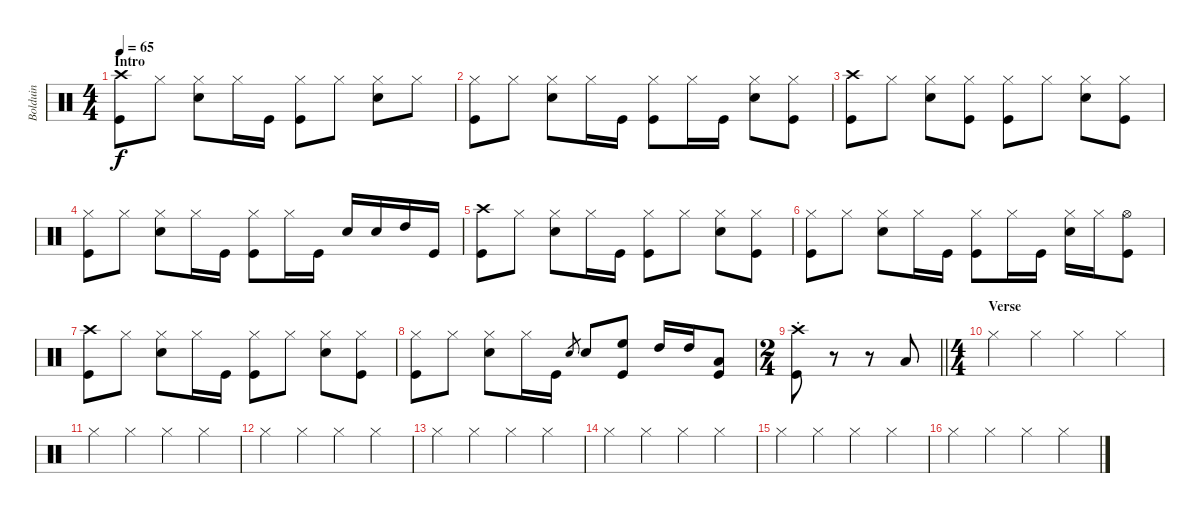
\track ("Bolduin" "Bolduin") {instrument percussion}
\staff {score}
\articulation defaults
\ts (4 4)
\section ("" "Intro")
\tempo 65
\clef neutral
\ks aminor
("Kick (hit)" "Crash high (hit)").8{dy f} "Hi-Hat (closed)".8 ("Hi-Hat (closed)" "Snare (hit) 2").8 "Hi-Hat (closed)".16 "Kick (hit)".16 ("Kick (hit)" "Hi-Hat (closed)").8 "Hi-Hat (closed)".8 ("Hi-Hat (closed)" "Snare (hit) 2").8 "Hi-Hat (closed)".8 |
("Kick (hit)" "Hi-Hat (closed)").8 "Hi-Hat (closed)".8 ("Hi-Hat (closed)" "Snare (hit) 2").8 "Hi-Hat (closed)".16 "Kick (hit)".16 ("Kick (hit)" "Hi-Hat (closed)").8 "Hi-Hat (closed)".16 "Kick (hit)".16 ("Hi-Hat (closed)" "Snare (hit) 2").8 ("Hi-Hat (closed)" "Kick (hit)").8 |
("Kick (hit)" "Crash high (hit)").8 "Hi-Hat (closed)".8 ("Hi-Hat (closed)" "Snare (hit) 2").8 ("Hi-Hat (closed)" "Kick (hit)").8 ("Kick (hit)" "Hi-Hat (closed)").8 "Hi-Hat (closed)".8 ("Hi-Hat (closed)" "Snare (hit) 2").8 ("Hi-Hat (closed)" "Kick (hit)").8 |
("Kick (hit)" "Hi-Hat (closed)").8 "Hi-Hat (closed)".8 ("Hi-Hat (closed)" "Snare (hit) 2").8 "Hi-Hat (closed)".16 "Kick (hit)".16 ("Kick (hit)" "Hi-Hat (closed)").8 "Hi-Hat (closed)".16 "Kick (hit)".16 "Snare (hit) 2".16 "Snare (hit) 2".16 "High Tom (hit)".16 "Kick (hit)".16 |
("Kick (hit)" "Crash high (hit)").8 "Hi-Hat (closed)".8 ("Hi-Hat (closed)" "Snare (hit) 2").8 "Hi-Hat (closed)".16 "Kick (hit)".16 ("Kick (hit)" "Hi-Hat (closed)").8 "Hi-Hat (closed)".8 ("Hi-Hat (closed)" "Snare (hit) 2").8 ("Hi-Hat (closed)" "Kick (hit)").8 |
("Kick (hit)" "Hi-Hat (closed)").8 "Hi-Hat (closed)".8 ("Hi-Hat (closed)" "Snare (hit) 2").8 "Hi-Hat (closed)".16 "Kick (hit)".16 ("Kick (hit)" "Hi-Hat (closed)").8 "Hi-Hat (closed)".16 "Kick (hit)".16 ("Hi-Hat (closed)" "Snare (hit) 2").16 "Hi-Hat (closed)".16 ("Hi-Hat (open)" "Kick (hit)").8 |
("Kick (hit)" "Crash high (hit)").8 "Hi-Hat (closed)".8 ("Hi-Hat (closed)" "Snare (hit) 2").8 "Hi-Hat (closed)".16 "Kick (hit)".16 ("Kick (hit)" "Hi-Hat (closed)").8 "Hi-Hat (closed)".8 ("Hi-Hat (closed)" "Snare (hit) 2").8 ("Hi-Hat (closed)" "Kick (hit)").8 |
("Kick (hit)" "Hi-Hat (closed)").8 "Hi-Hat (closed)".8 ("Hi-Hat (closed)" "Snare (hit) 2").8 "Hi-Hat (closed)".16 "Kick (hit)".16 "Snare (hit) 2".8{gr} "Snare (hit) 2".8 ("Kick (hit)" "High Floor Tom (hit)").8 "High Tom (hit)".16 "High Tom (hit)".16 ("Low Tom (hit)" "Kick (hit)").8 |
\ts (2 4)
\barLineRight lightlight
("Kick (hit)" "Crash high (hit)"{st}).8 r.8 r.8 "Low Tom (hit)".8 |
\ts (4 4)
\section ("" "Verse")
\ks c "Hi-Hat (closed)".4 "Hi-Hat (closed)".4 "Hi-Hat (closed)".4 "Hi-Hat (closed)".4
|
"Hi-Hat (closed)".4 "Hi-Hat (closed)".4 "Hi-Hat (closed)".4 "Hi-Hat (closed)".4 |
"Hi-Hat (closed)".4 "Hi-Hat (closed)".4 "Hi-Hat (closed)".4 "Hi-Hat (closed)".4 |
"Hi-Hat (closed)".4 "Hi-Hat (closed)".4 "Hi-Hat (closed)".4 "Hi-Hat (closed)".4 |
"Hi-Hat (closed)".4 "Hi-Hat (closed)".4 "Hi-Hat (closed)".4 "Hi-Hat (closed)".4 |
"Hi-Hat (closed)".4 "Hi-Hat (closed)".4 "Hi-Hat (closed)".4 "Hi-Hat (closed)".4 |
"Hi-Hat (closed)".4 "Hi-Hat (closed)".4 "Hi-Hat (closed)".4 "Hi-Hat (closed)".4
